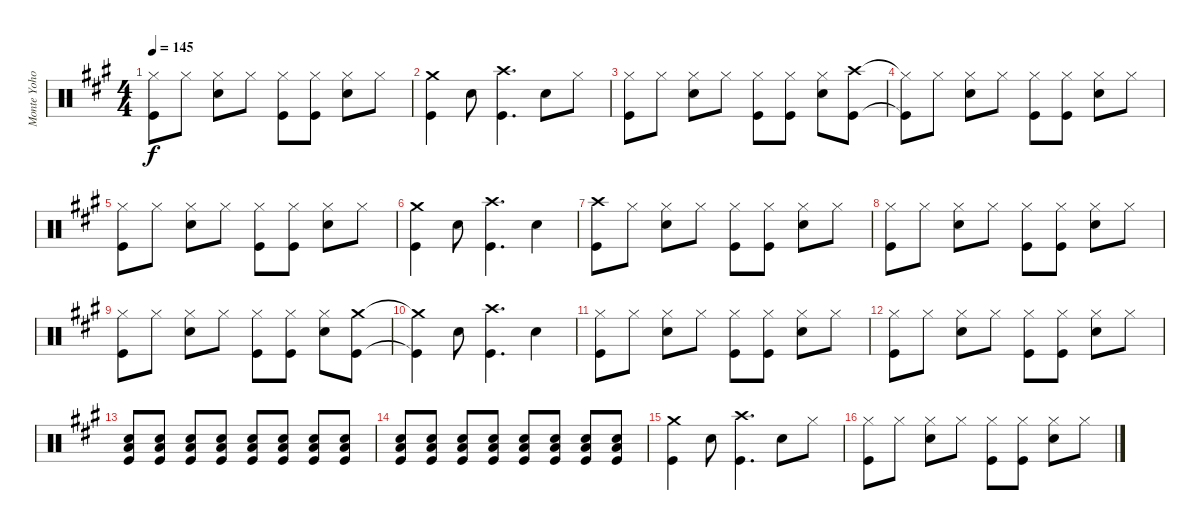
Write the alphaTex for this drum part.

\track ("Monte Yoho Drums" "Monte Yoho") {instrument percussion}
\staff {score}
\articulation defaults
\ts (4 4)
\tempo 145
\clef neutral
\ks a
("Hi-Hat (closed)" "Kick (hit)").8{dy f} "Hi-Hat (closed)".8 ("Hi-Hat (closed)" "Snare (hit) 2").8 "Hi-Hat (closed)".8 ("Hi-Hat (closed)" "Kick (hit)").8 ("Hi-Hat (closed)" "Kick (hit)").8 ("Hi-Hat (closed)" "Snare (hit) 2").8 "Hi-Hat (closed)".8 |
("Crash medium (hit)" "Kick (hit)").4 "Snare (hit) 2".8 ("Crash high (hit)" "Kick (hit)").4{d} "Snare (hit) 2".8 "Hi-Hat (closed)".8 |
("Hi-Hat (closed)" "Kick (hit)").8 "Hi-Hat (closed)".8 ("Hi-Hat (closed)" "Snare (hit) 2").8 "Hi-Hat (closed)".8 ("Hi-Hat (closed)" "Kick (hit)").8 ("Hi-Hat (closed)" "Kick (hit)").8 ("Hi-Hat (closed)" "Snare (hit) 2").8 ("Crash high (hit)" "Kick (hit)").8 |
("Hi-Hat (closed)"{t} "Kick (hit)"{t}).8 "Hi-Hat (closed)".8 ("Hi-Hat (closed)" "Snare (hit) 2").8 "Hi-Hat (closed)".8 ("Hi-Hat (closed)" "Kick (hit)").8 ("Hi-Hat (closed)" "Kick (hit)").8 ("Hi-Hat (closed)" "Snare (hit) 2").8 "Hi-Hat (closed)".8 |
("Hi-Hat (closed)" "Kick (hit)").8 "Hi-Hat (closed)".8 ("Hi-Hat (closed)" "Snare (hit) 2").8 "Hi-Hat (closed)".8 ("Hi-Hat (closed)" "Kick (hit)").8 ("Hi-Hat (closed)" "Kick (hit)").8 ("Hi-Hat (closed)" "Snare (hit) 2").8 "Hi-Hat (closed)".8 |
("Crash medium (hit)" "Kick (hit)").4 "Snare (hit) 2".8 ("Crash high (hit)" "Kick (hit)").4{d} "Snare (hit) 2".4 |
("Crash high (hit)" "Kick (hit)").8 "Hi-Hat (closed)".8 ("Hi-Hat (closed)" "Snare (hit) 2").8 "Hi-Hat (closed)".8 ("Hi-Hat (closed)" "Kick (hit)").8 ("Hi-Hat (closed)" "Kick (hit)").8 ("Hi-Hat (closed)" "Snare (hit) 2").8 "Hi-Hat (closed)".8 |
("Hi-Hat (closed)" "Kick (hit)").8 "Hi-Hat (closed)".8 ("Hi-Hat (closed)" "Snare (hit) 2").8 "Hi-Hat (closed)".8 ("Hi-Hat (closed)" "Kick (hit)").8 ("Hi-Hat (closed)" "Kick (hit)").8 ("Hi-Hat (closed)" "Snare (hit) 2").8 "Hi-Hat (closed)".8 |
("Hi-Hat (closed)" "Kick (hit)").8 "Hi-Hat (closed)".8 ("Hi-Hat (closed)" "Snare (hit) 2").8 "Hi-Hat (closed)".8 ("Hi-Hat (closed)" "Kick (hit)").8 ("Hi-Hat (closed)" "Kick (hit)").8 ("Hi-Hat (closed)" "Snare (hit) 2").8 ("Crash medium (hit)" "Kick (hit)").8 |
("Crash medium (hit)"{t} "Kick (hit)"{t}).4 "Snare (hit) 2".8 ("Crash high (hit)" "Kick (hit)").4{d} "Snare (hit) 2".4 |
("Hi-Hat (closed)" "Kick (hit)").8 "Hi-Hat (closed)".8 ("Hi-Hat (closed)" "Snare (hit) 2").8 "Hi-Hat (closed)".8 ("Hi-Hat (closed)" "Kick (hit)").8 ("Hi-Hat (closed)" "Kick (hit)").8 ("Hi-Hat (closed)" "Snare (hit) 2").8 "Hi-Hat (closed)".8 |
("Hi-Hat (closed)" "Kick (hit)").8 "Hi-Hat (closed)".8 ("Hi-Hat (closed)" "Snare (hit) 2").8 "Hi-Hat (closed)".8 ("Hi-Hat (closed)" "Kick (hit)").8 ("Hi-Hat (closed)" "Kick (hit)").8 ("Hi-Hat (closed)" "Snare (hit) 2").8 "Hi-Hat (closed)".8 |
("Snare (hit) 2" "Low Floor Tom (hit)" "Kick (hit)").8 ("Snare (hit) 2" "Low Floor Tom (hit)" "Kick (hit)").8 ("Snare (hit) 2" "Low Floor Tom (hit)" "Kick (hit)").8 ("Snare (hit) 2" "Low Floor Tom (hit)" "Kick (hit)").8 ("Snare (hit) 2" "Low Floor Tom (hit)" "Kick (hit)").8 ("Snare (hit) 2" "Low Floor Tom (hit)" "Kick (hit)").8 ("Snare (hit) 2" "Low Floor Tom (hit)" "Kick (hit)").8 ("Snare (hit) 2" "Low Floor Tom (hit)" "Kick (hit)").8 |
("Snare (hit) 2" "Low Floor Tom (hit)" "Kick (hit)").8 ("Snare (hit) 2" "Low Floor Tom (hit)" "Kick (hit)").8 ("Snare (hit) 2" "Low Floor Tom (hit)" "Kick (hit)").8 ("Snare (hit) 2" "Low Floor Tom (hit)" "Kick (hit)").8 ("Snare (hit) 2" "Low Floor Tom (hit)" "Kick (hit)").8 ("Snare (hit) 2" "Low Floor Tom (hit)" "Kick (hit)").8 ("Snare (hit) 2" "Low Floor Tom (hit)" "Kick (hit)").8 ("Snare (hit) 2" "Low Floor Tom (hit)" "Kick (hit)").8 |
("Crash medium (hit)" "Kick (hit)").4 "Snare (hit) 2".8 ("Crash high (hit)" "Kick (hit)").4{d} "Snare (hit) 2".8 "Hi-Hat (closed)".8 |
("Hi-Hat (closed)" "Kick (hit)").8 "Hi-Hat (closed)".8 ("Hi-Hat (closed)" "Snare (hit) 2").8 "Hi-Hat (closed)".8 ("Hi-Hat (closed)" "Kick (hit)").8 ("Hi-Hat (closed)" "Kick (hit)").8 ("Hi-Hat (closed)" "Snare (hit) 2").8 "Hi-Hat (closed)".8
